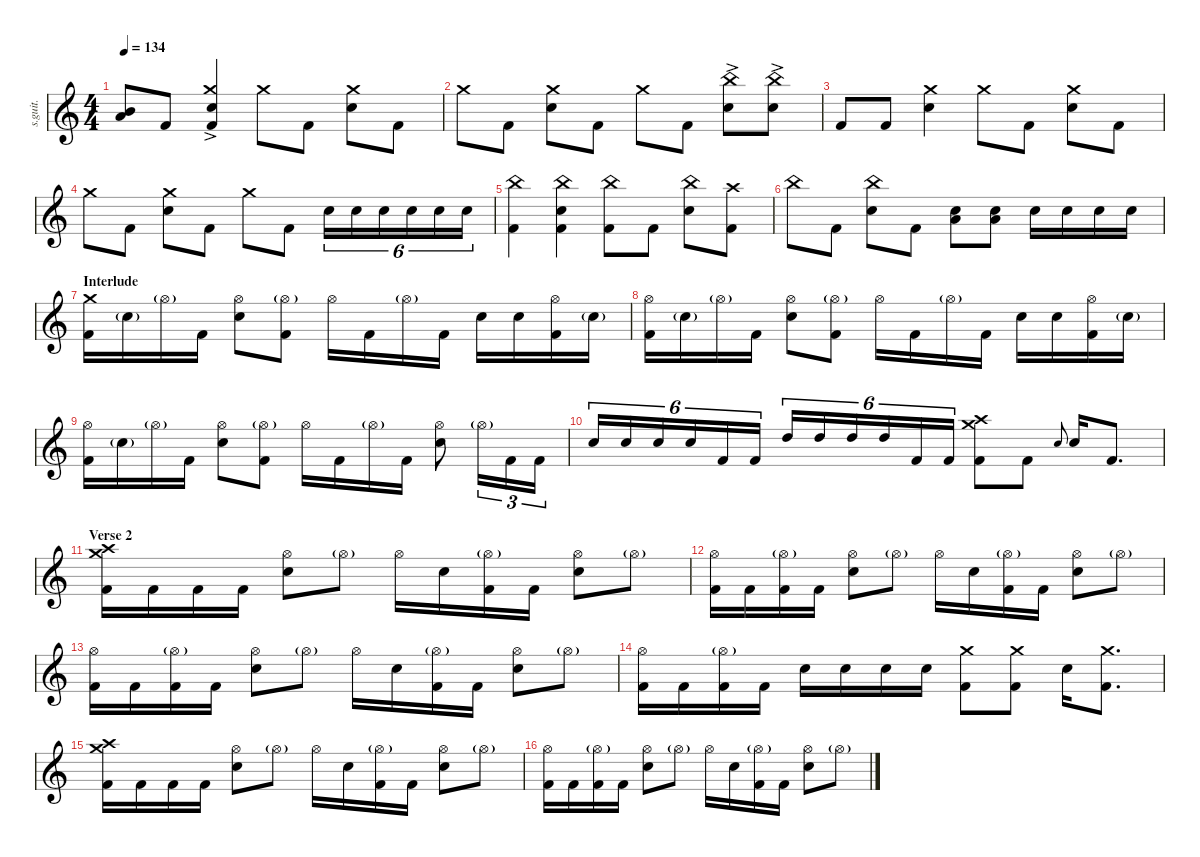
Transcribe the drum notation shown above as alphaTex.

\defaultSystemsLayout 4
\hideDynamics
\bracketExtendMode nobrackets
\track ("Joey Jordison RIP" "s.guit.") {instrument percussion}
\staff {score}
\articulation defaults
\ts (4 4)
\tempo 134
\clef g2
\ks c
("Mid Tom (hit)" "Low Floor Tom (hit)").8{dy fff} "Kick (hit) 2".8 ("Crash medium (hit)"{ac} "Kick (hit) 2"{ac} "Snare (hit) 2"{ac}).4 "Crash medium (hit)".8 "Kick (hit) 2".8 ("Crash medium (hit)" "Snare (hit) 2").8 "Kick (hit) 2".8 |
"Crash medium (hit)".8 "Kick (hit) 2".8 ("Crash medium (hit)" "Snare (hit) 2").8 "Kick (hit) 2".8 "Crash medium (hit)".8 "Kick (hit) 2".8 ("China (hit)"{ac} "Snare (hit) 2"{ac}).8 ("China (hit)"{ac} "Snare (hit) 2"{ac}).8 |
"Kick (hit) 2".8 "Kick (hit) 2".8 ("Crash medium (hit)" "Snare (hit) 2").4 "Crash medium (hit)".8 "Kick (hit) 2".8 ("Crash medium (hit)" "Snare (hit) 2").8 "Kick (hit) 2".8 |
"Crash medium (hit)".8 "Kick (hit) 2".8 ("Crash medium (hit)" "Snare (hit) 2").8 "Kick (hit) 2".8 "Crash medium (hit)".8 "Kick (hit) 2".8 "Snare (hit) 2".16{tu (6 4)} "Snare (hit) 2".16{tu (6 4)} "Snare (hit) 2".16{tu (6 4)} "Snare (hit) 2".16{tu (6 4)} "Snare (hit) 2".16{tu (6 4)} "Snare (hit) 2".16{tu (6 4)} |
("China (hit)" "Kick (hit) 2").4 ("China (hit)" "Kick (hit) 2" "Snare (hit) 2").4 ("China (hit)" "Kick (hit) 2").8 "Kick (hit) 2".8 ("China (hit)" "Snare (hit) 2").8 ("Crash high (hit)" "Kick (hit) 2").8 |
"China (hit)".8 "Kick (hit) 2".8 ("China (hit)" "Snare (hit) 2").8 "Kick (hit) 2".8 ("Low Floor Tom (hit)" "Snare (hit) 2").8 ("Low Floor Tom (hit)" "Snare (hit) 2").8 "Snare (hit) 2".16 "Snare (hit) 2".16 "Snare (hit) 2".16 "Snare (hit) 2".16 |
\section ("" "Interlude")
("Crash medium (hit)" "Kick (hit) 2").16 "Snare (hit) 2"{g}.16 "Hi-Hat (open)"{g}.16 "Kick (hit) 2".16 ("Hi-Hat (open)" "Snare (hit) 2").8 ("Hi-Hat (open)"{g} "Kick (hit) 2").8 "Hi-Hat (open)".16 "Kick (hit) 2".16 "Hi-Hat (open)"{g}.16 "Kick (hit) 2".16 "Snare (hit) 2".16 "Snare (hit) 2".16 ("Hi-Hat (open)" "Kick (hit) 2").16 "Snare (hit) 2"{g}.16 |
("Hi-Hat (open)" "Kick (hit) 2").16 "Snare (hit) 2"{g}.16 "Hi-Hat (open)"{g}.16 "Kick (hit) 2".16 ("Hi-Hat (open)" "Snare (hit) 2").8 ("Hi-Hat (open)"{g} "Kick (hit) 2").8 "Hi-Hat (open)".16 "Kick (hit) 2".16 "Hi-Hat (open)"{g}.16 "Kick (hit) 2".16 "Snare (hit) 2".16 "Snare (hit) 2".16 ("Hi-Hat (open)" "Kick (hit) 2").16 "Snare (hit) 2"{g}.16 |
("Hi-Hat (open)" "Kick (hit) 2").16 "Snare (hit) 2"{g}.16 "Hi-Hat (open)"{g}.16 "Kick (hit) 2".16 ("Hi-Hat (open)" "Snare (hit) 2").8 ("Hi-Hat (open)"{g} "Kick (hit) 2").8 "Hi-Hat (open)".16 "Kick (hit) 2".16 "Hi-Hat (open)"{g}.16 "Kick (hit) 2".16 ("Hi-Hat (open)" "Snare (hit) 2").8 "Hi-Hat (open)"{g}.16{tu (3 2)} "Kick (hit) 2".16{tu (3 2)} "Kick (hit) 2".16{tu (3 2)} |
"Snare (hit) 2".16{tu (6 4)} "Snare (hit) 2".16{tu (6 4)} "Snare (hit) 2".16{tu (6 4)} "Snare (hit) 2".16{tu (6 4)} "Kick (hit) 2".16{tu (6 4)} "Kick (hit) 2".16{tu (6 4)} "High Tom (hit)".16{tu (6 4)} "High Tom (hit)".16{tu (6 4)} "High Tom (hit)".16{tu (6 4)} "High Tom (hit)".16{tu (6 4)} "Kick (hit) 2".16{tu (6 4)} "Kick (hit) 2".16{tu (6 4)} ("Crash high (hit)" "Crash medium (hit)" "Kick (hit) 2").8 "Kick (hit) 2".8 "Snare (hit) 2".8{gr onbeat} "Snare (hit) 2".16 "Kick (hit) 2".8{d} |
\section ("" "Verse 2")
("Crash high (hit)" "Crash medium (hit)" "Kick (hit) 2").16 "Kick (hit) 2".16 "Kick (hit) 2".16 "Kick (hit) 2".16 ("Hi-Hat (open)" "Snare (hit) 2").8 "Hi-Hat (open)"{g}.8 "Hi-Hat (open)".16 "Snare (hit) 2".16 ("Hi-Hat (open)"{g} "Kick (hit) 2").16 "Kick (hit) 2".16 ("Hi-Hat (open)" "Snare (hit) 2").8 "Hi-Hat (open)"{g}.8 |
("Hi-Hat (open)" "Kick (hit) 2").16 "Kick (hit) 2".16 ("Hi-Hat (open)"{g} "Kick (hit) 2").16 "Kick (hit) 2".16 ("Hi-Hat (open)" "Snare (hit) 2").8 "Hi-Hat (open)"{g}.8 "Hi-Hat (open)".16 "Snare (hit) 2".16 ("Hi-Hat (open)"{g} "Kick (hit) 2").16 "Kick (hit) 2".16 ("Hi-Hat (open)" "Snare (hit) 2").8 "Hi-Hat (open)"{g}.8 |
("Hi-Hat (open)" "Kick (hit) 2").16 "Kick (hit) 2".16 ("Hi-Hat (open)"{g} "Kick (hit) 2").16 "Kick (hit) 2".16 ("Hi-Hat (open)" "Snare (hit) 2").8 "Hi-Hat (open)"{g}.8 "Hi-Hat (open)".16 "Snare (hit) 2".16 ("Hi-Hat (open)"{g} "Kick (hit) 2").16 "Kick (hit) 2".16 ("Hi-Hat (open)" "Snare (hit) 2").8 "Hi-Hat (open)"{g}.8 |
("Hi-Hat (open)" "Kick (hit) 2").16 "Kick (hit) 2".16 ("Hi-Hat (open)"{g} "Kick (hit) 2").16 "Kick (hit) 2".16 "Snare (hit) 2".16 "Snare (hit) 2".16 "Snare (hit) 2".16 "Snare (hit) 2".16 ("Crash medium (hit)" "Kick (hit) 2").8 ("Crash medium (hit)" "Kick (hit) 2").8 "Snare (hit) 2".16 ("Crash medium (hit)" "Kick (hit) 2").8{d} |
("Crash high (hit)" "Crash medium (hit)" "Kick (hit) 2").16 "Kick (hit) 2".16 "Kick (hit) 2".16 "Kick (hit) 2".16 ("Hi-Hat (open)" "Snare (hit) 2").8 "Hi-Hat (open)"{g}.8 "Hi-Hat (open)".16 "Snare (hit) 2".16 ("Hi-Hat (open)"{g} "Kick (hit) 2").16 "Kick (hit) 2".16 ("Hi-Hat (open)" "Snare (hit) 2").8 "Hi-Hat (open)"{g}.8 |
("Hi-Hat (open)" "Kick (hit) 2").16 "Kick (hit) 2".16 ("Hi-Hat (open)"{g} "Kick (hit) 2").16 "Kick (hit) 2".16 ("Hi-Hat (open)" "Snare (hit) 2").8 "Hi-Hat (open)"{g}.8 "Hi-Hat (open)".16 "Snare (hit) 2".16 ("Hi-Hat (open)"{g} "Kick (hit) 2").16 "Kick (hit) 2".16 ("Hi-Hat (open)" "Snare (hit) 2").8 "Hi-Hat (open)"{g}.8
